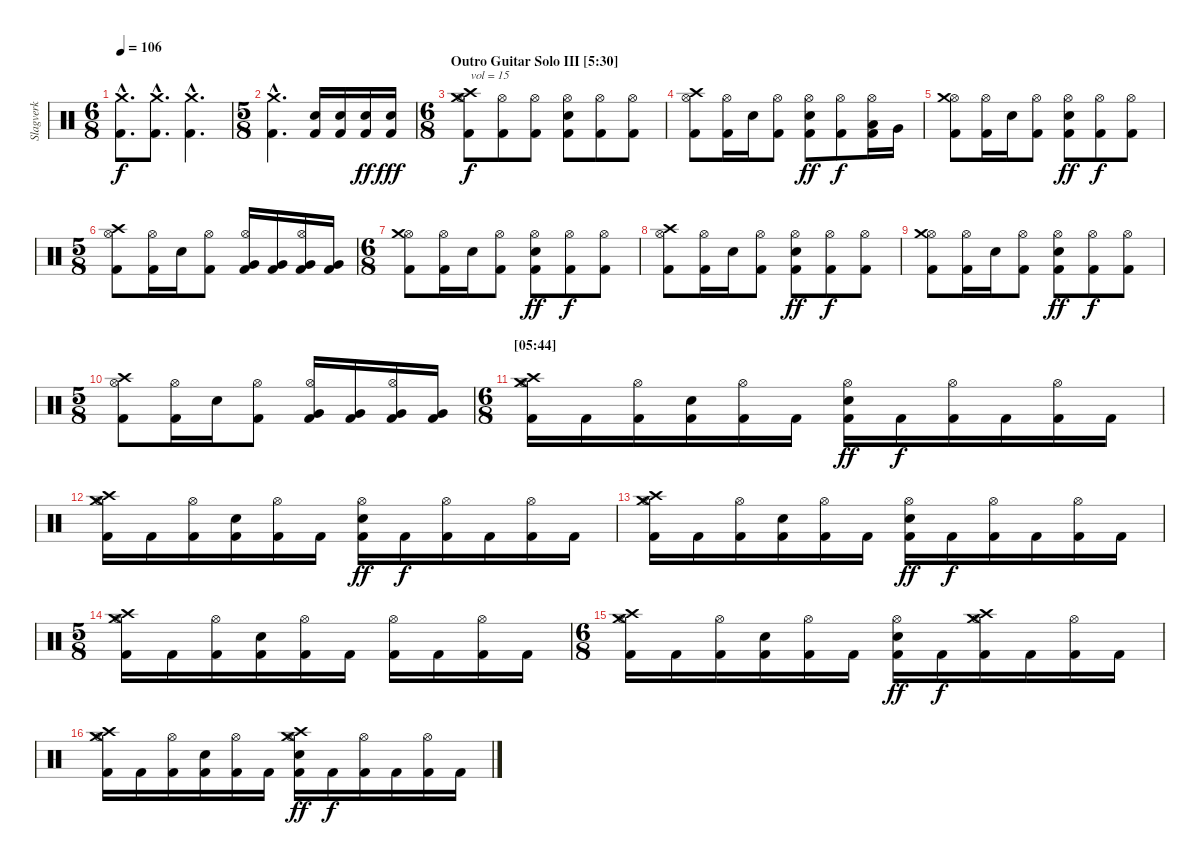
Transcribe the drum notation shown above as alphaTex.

\track ("Slagverk" "Slagverk") {instrument percussion}
\staff {score}
\articulation defaults
\ts (6 8)
\tempo 106
\clef neutral
\ks c
("Crash medium (hit)"{hac} "Kick (hit) 2"{hac}).8{d dy f} ("Crash medium (hit)"{hac} "Kick (hit) 2"{hac}).8{d} ("Crash medium (hit)"{hac} "Kick (hit) 2"{hac}).4{d} |
\ts (5 8)
("Crash medium (hit)"{hac} "Kick (hit) 2"{hac}).4{d} ("Electric Snare (hit)" "Kick (hit) 2").16 ("Electric Snare (hit)" "Kick (hit) 2").16 ("Electric Snare (hit)" "Kick (hit) 2").16{dy ff} ("Electric Snare (hit)" "Kick (hit) 2").16{dy fff} |
\ts (6 8)
\section ("" "Outro Guitar Solo III [5:30]")
("Hi-Hat (open)" "Crash medium (hit)" "Crash high (hit)" "Kick (hit) 2").8{txt "vol = 15" dy f volume 15} ("Hi-Hat (open)" "Kick (hit) 2").8 ("Hi-Hat (open)" "Kick (hit) 2").8 ("Hi-Hat (open)" "Electric Snare (hit)" "Kick (hit) 2").8 ("Hi-Hat (open)" "Kick (hit) 2").8 ("Hi-Hat (open)" "Kick (hit) 2").8 |
("Hi-Hat (open)" "Crash high (hit)" "Kick (hit) 2").8 ("Hi-Hat (open)" "Kick (hit) 2").16 "Electric Snare (hit)".16 ("Hi-Hat (open)" "Kick (hit) 2").8 ("Hi-Hat (open)" "Electric Snare (hit)" "Kick (hit) 2").8{dy ff} ("Hi-Hat (open)" "Kick (hit) 2").8{dy f} ("Hi-Hat (open)" "Low Tom (hit)" "Kick (hit) 2").16 "Very Low Tom (hit)".16 |
("Hi-Hat (open)" "Crash medium (hit)" "Kick (hit) 2").8 ("Hi-Hat (open)" "Kick (hit) 2").16 "Electric Snare (hit)".16 ("Hi-Hat (open)" "Kick (hit) 2").8 ("Hi-Hat (open)" "Electric Snare (hit)" "Kick (hit) 2").8{dy ff} ("Hi-Hat (open)" "Kick (hit) 2").8{dy f} ("Hi-Hat (open)" "Kick (hit) 2").8 |
\ts (5 8)
("Hi-Hat (open)" "Crash high (hit)" "Kick (hit) 2").8 ("Hi-Hat (open)" "Kick (hit) 2").16 "Electric Snare (hit)".16 ("Hi-Hat (open)" "Kick (hit) 2").8 ("Hi-Hat (open)" "Very Low Tom (hit)" "Kick (hit) 2").16 ("Very Low Tom (hit)" "Kick (hit) 2").16 ("Hi-Hat (open)" "Very Low Tom (hit)" "Kick (hit) 2").16 ("Very Low Tom (hit)" "Kick (hit) 2").16 |
\ts (6 8)
("Hi-Hat (open)" "Crash medium (hit)" "Kick (hit) 2").8 ("Hi-Hat (open)" "Kick (hit) 2").16 "Electric Snare (hit)".16 ("Hi-Hat (open)" "Kick (hit) 2").8 ("Hi-Hat (open)" "Electric Snare (hit)" "Kick (hit) 2").8{dy ff} ("Hi-Hat (open)" "Kick (hit) 2").8{dy f} ("Hi-Hat (open)" "Kick (hit) 2").8 |
("Hi-Hat (open)" "Crash high (hit)" "Kick (hit) 2").8 ("Hi-Hat (open)" "Kick (hit) 2").16 "Electric Snare (hit)".16 ("Hi-Hat (open)" "Kick (hit) 2").8 ("Hi-Hat (open)" "Electric Snare (hit)" "Kick (hit) 2").8{dy ff} ("Hi-Hat (open)" "Kick (hit) 2").8{dy f} ("Hi-Hat (open)" "Kick (hit) 2").8 |
("Hi-Hat (open)" "Crash medium (hit)" "Kick (hit) 2").8 ("Hi-Hat (open)" "Kick (hit) 2").16 "Electric Snare (hit)".16 ("Hi-Hat (open)" "Kick (hit) 2").8 ("Hi-Hat (open)" "Electric Snare (hit)" "Kick (hit) 2").8{dy ff} ("Hi-Hat (open)" "Kick (hit) 2").8{dy f} ("Hi-Hat (open)" "Kick (hit) 2").8 |
\ts (5 8)
("Hi-Hat (open)" "Crash high (hit)" "Kick (hit) 2").8 ("Hi-Hat (open)" "Kick (hit) 2").16 "Electric Snare (hit)".16 ("Hi-Hat (open)" "Kick (hit) 2").8 ("Hi-Hat (open)" "Very Low Tom (hit)" "Kick (hit) 2").16 ("Very Low Tom (hit)" "Kick (hit) 2").16 ("Hi-Hat (open)" "Very Low Tom (hit)" "Kick (hit) 2").16 ("Very Low Tom (hit)" "Kick (hit) 2").16 |
\ts (6 8)
\section ("" "[05:44]")
("Hi-Hat (open)" "Crash medium (hit)" "Crash high (hit)" "Kick (hit) 2").16 "Kick (hit) 2".16 ("Hi-Hat (open)" "Kick (hit) 2").16 ("Electric Snare (hit)" "Kick (hit) 2").16 ("Hi-Hat (open)" "Kick (hit) 2").16 "Kick (hit) 2".16 ("Hi-Hat (open)" "Electric Snare (hit)" "Kick (hit) 2").16{dy ff} "Kick (hit) 2".16{dy f} ("Hi-Hat (open)" "Kick (hit) 2").16 "Kick (hit) 2".16 ("Hi-Hat (open)" "Kick (hit) 2").16 "Kick (hit) 2".16 |
("Hi-Hat (open)" "Crash medium (hit)" "Crash high (hit)" "Kick (hit) 2").16 "Kick (hit) 2".16 ("Hi-Hat (open)" "Kick (hit) 2").16 ("Electric Snare (hit)" "Kick (hit) 2").16 ("Hi-Hat (open)" "Kick (hit) 2").16 "Kick (hit) 2".16 ("Hi-Hat (open)" "Electric Snare (hit)" "Kick (hit) 2").16{dy ff} "Kick (hit) 2".16{dy f} ("Hi-Hat (open)" "Kick (hit) 2").16 "Kick (hit) 2".16 ("Hi-Hat (open)" "Kick (hit) 2").16 "Kick (hit) 2".16 |
("Hi-Hat (open)" "Crash medium (hit)" "Crash high (hit)" "Kick (hit) 2").16 "Kick (hit) 2".16 ("Hi-Hat (open)" "Kick (hit) 2").16 ("Electric Snare (hit)" "Kick (hit) 2").16 ("Hi-Hat (open)" "Kick (hit) 2").16 "Kick (hit) 2".16 ("Hi-Hat (open)" "Electric Snare (hit)" "Kick (hit) 2").16{dy ff} "Kick (hit) 2".16{dy f} ("Hi-Hat (open)" "Kick (hit) 2").16 "Kick (hit) 2".16 ("Hi-Hat (open)" "Kick (hit) 2").16 "Kick (hit) 2".16 |
\ts (5 8)
("Hi-Hat (open)" "Crash medium (hit)" "Crash high (hit)" "Kick (hit) 2").16 "Kick (hit) 2".16 ("Hi-Hat (open)" "Kick (hit) 2").16 ("Electric Snare (hit)" "Kick (hit) 2").16 ("Hi-Hat (open)" "Kick (hit) 2").16 "Kick (hit) 2".16 ("Hi-Hat (open)" "Kick (hit) 2").16 "Kick (hit) 2".16 ("Hi-Hat (open)" "Kick (hit) 2").16 "Kick (hit) 2".16 |
\ts (6 8)
("Hi-Hat (open)" "Crash medium (hit)" "Crash high (hit)" "Kick (hit) 2").16 "Kick (hit) 2".16 ("Hi-Hat (open)" "Kick (hit) 2").16 ("Electric Snare (hit)" "Kick (hit) 2").16 ("Hi-Hat (open)" "Kick (hit) 2").16 "Kick (hit) 2".16 ("Hi-Hat (open)" "Electric Snare (hit)" "Kick (hit) 2").16{dy ff} "Kick (hit) 2".16{dy f} ("Hi-Hat (open)" "Crash medium (hit)" "Crash high (hit)" "Kick (hit) 2").16 "Kick (hit) 2".16 ("Hi-Hat (open)" "Kick (hit) 2").16 "Kick (hit) 2".16 |
("Hi-Hat (open)" "Crash medium (hit)" "Crash high (hit)" "Kick (hit) 2").16 "Kick (hit) 2".16 ("Hi-Hat (open)" "Kick (hit) 2").16 ("Electric Snare (hit)" "Kick (hit) 2").16 ("Hi-Hat (open)" "Kick (hit) 2").16 "Kick (hit) 2".16 ("Hi-Hat (open)" "Crash medium (hit)" "Crash high (hit)" "Electric Snare (hit)" "Kick (hit) 2").16{dy ff} "Kick (hit) 2".16{dy f} ("Hi-Hat (open)" "Kick (hit) 2").16 "Kick (hit) 2".16 ("Hi-Hat (open)" "Kick (hit) 2").16 "Kick (hit) 2".16
